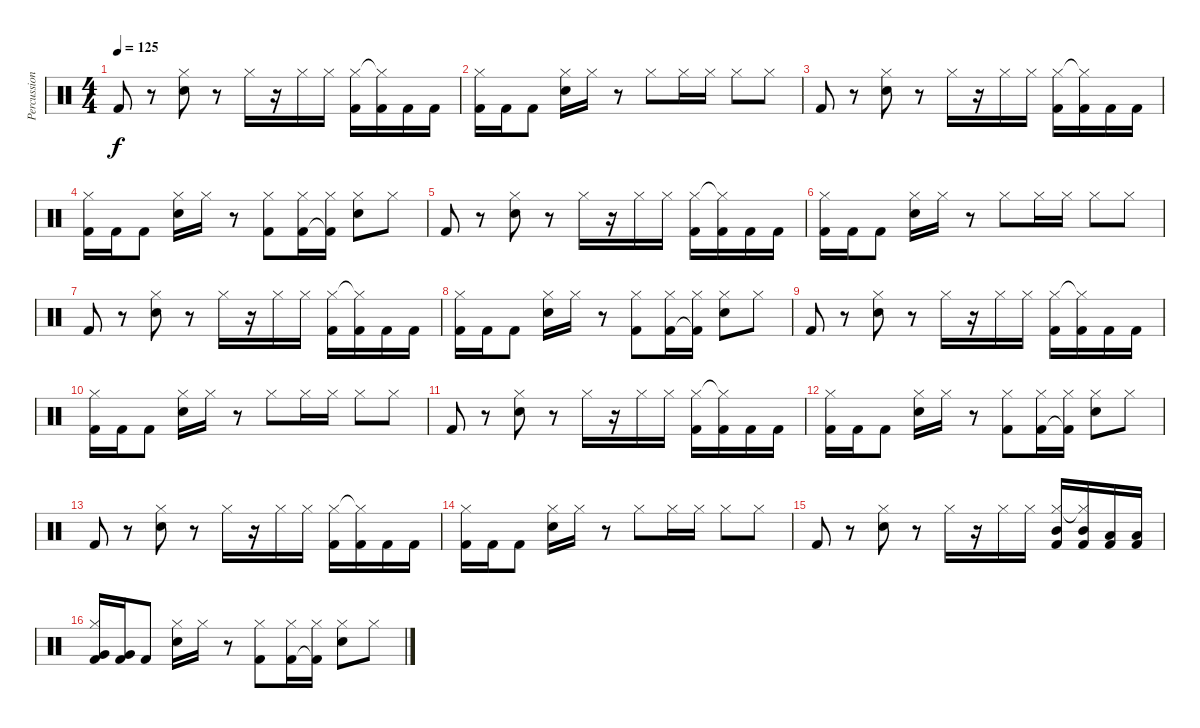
\track ("Percussion" "Percussion") {instrument percussion}
\staff {score}
\articulation defaults
\ts (4 4)
\tempo 125
\clef neutral
\ks c "Kick (hit) 2".8{dy f}
r.8 ("Hi-Hat (closed)" "Electric Snare (hit)").8 r.8 "Hi-Hat (closed)".16 r.16 "Hi-Hat (closed)".16 "Hi-Hat (closed)".16 ("Hi-Hat (closed)" "Kick (hit) 2").16 ("Hi-Hat (closed)"{t} "Kick (hit) 2").16 "Kick (hit) 2".16 "Kick (hit) 2".16 |
("Hi-Hat (closed)" "Kick (hit) 2").16 "Kick (hit) 2".16 "Kick (hit) 2".8 ("Hi-Hat (closed)" "Electric Snare (hit)").16 "Hi-Hat (closed)".16 r.8 "Hi-Hat (closed)".8 "Hi-Hat (closed)".16 "Hi-Hat (closed)".16 "Hi-Hat (closed)".8 "Hi-Hat (closed)".8 |
"Kick (hit) 2".8 r.8 ("Hi-Hat (closed)" "Electric Snare (hit)").8 r.8 "Hi-Hat (closed)".16 r.16 "Hi-Hat (closed)".16 "Hi-Hat (closed)".16 ("Hi-Hat (closed)" "Kick (hit) 2").16 ("Hi-Hat (closed)"{t} "Kick (hit) 2").16 "Kick (hit) 2".16 "Kick (hit) 2".16 |
("Hi-Hat (closed)" "Kick (hit) 2").16 "Kick (hit) 2".16 "Kick (hit) 2".8 ("Hi-Hat (closed)" "Electric Snare (hit)").16 "Hi-Hat (closed)".16 r.8 ("Hi-Hat (closed)" "Kick (hit) 2").8 ("Hi-Hat (closed)" "Kick (hit) 2").16 ("Hi-Hat (closed)" "Kick (hit) 2"{t}).16 ("Hi-Hat (closed)" "Electric Snare (hit)").8 "Hi-Hat (closed)".8 |
"Kick (hit) 2".8 r.8 ("Hi-Hat (closed)" "Electric Snare (hit)").8 r.8 "Hi-Hat (closed)".16 r.16 "Hi-Hat (closed)".16 "Hi-Hat (closed)".16 ("Hi-Hat (closed)" "Kick (hit) 2").16 ("Hi-Hat (closed)"{t} "Kick (hit) 2").16 "Kick (hit) 2".16 "Kick (hit) 2".16 |
("Hi-Hat (closed)" "Kick (hit) 2").16 "Kick (hit) 2".16 "Kick (hit) 2".8 ("Hi-Hat (closed)" "Electric Snare (hit)").16 "Hi-Hat (closed)".16 r.8 "Hi-Hat (closed)".8 "Hi-Hat (closed)".16 "Hi-Hat (closed)".16 "Hi-Hat (closed)".8 "Hi-Hat (closed)".8 |
"Kick (hit) 2".8 r.8 ("Hi-Hat (closed)" "Electric Snare (hit)").8 r.8 "Hi-Hat (closed)".16 r.16 "Hi-Hat (closed)".16 "Hi-Hat (closed)".16 ("Hi-Hat (closed)" "Kick (hit) 2").16 ("Hi-Hat (closed)"{t} "Kick (hit) 2").16 "Kick (hit) 2".16 "Kick (hit) 2".16 |
("Hi-Hat (closed)" "Kick (hit) 2").16 "Kick (hit) 2".16 "Kick (hit) 2".8 ("Hi-Hat (closed)" "Electric Snare (hit)").16 "Hi-Hat (closed)".16 r.8 ("Hi-Hat (closed)" "Kick (hit) 2").8 ("Hi-Hat (closed)" "Kick (hit) 2").16 ("Hi-Hat (closed)" "Kick (hit) 2"{t}).16 ("Hi-Hat (closed)" "Electric Snare (hit)").8 "Hi-Hat (closed)".8 |
"Kick (hit) 2".8 r.8 ("Hi-Hat (closed)" "Electric Snare (hit)").8 r.8 "Hi-Hat (closed)".16 r.16 "Hi-Hat (closed)".16 "Hi-Hat (closed)".16 ("Hi-Hat (closed)" "Kick (hit) 2").16 ("Hi-Hat (closed)"{t} "Kick (hit) 2").16 "Kick (hit) 2".16 "Kick (hit) 2".16 |
("Hi-Hat (closed)" "Kick (hit) 2").16 "Kick (hit) 2".16 "Kick (hit) 2".8 ("Hi-Hat (closed)" "Electric Snare (hit)").16 "Hi-Hat (closed)".16 r.8 "Hi-Hat (closed)".8 "Hi-Hat (closed)".16 "Hi-Hat (closed)".16 "Hi-Hat (closed)".8 "Hi-Hat (closed)".8 |
"Kick (hit) 2".8 r.8 ("Hi-Hat (closed)" "Electric Snare (hit)").8 r.8 "Hi-Hat (closed)".16 r.16 "Hi-Hat (closed)".16 "Hi-Hat (closed)".16 ("Hi-Hat (closed)" "Kick (hit) 2").16 ("Hi-Hat (closed)"{t} "Kick (hit) 2").16 "Kick (hit) 2".16 "Kick (hit) 2".16 |
("Hi-Hat (closed)" "Kick (hit) 2").16 "Kick (hit) 2".16 "Kick (hit) 2".8 ("Hi-Hat (closed)" "Electric Snare (hit)").16 "Hi-Hat (closed)".16 r.8 ("Hi-Hat (closed)" "Kick (hit) 2").8 ("Hi-Hat (closed)" "Kick (hit) 2").16 ("Hi-Hat (closed)" "Kick (hit) 2"{t}).16 ("Hi-Hat (closed)" "Electric Snare (hit)").8 "Hi-Hat (closed)".8 |
"Kick (hit) 2".8 r.8 ("Hi-Hat (closed)" "Electric Snare (hit)").8 r.8 "Hi-Hat (closed)".16 r.16 "Hi-Hat (closed)".16 "Hi-Hat (closed)".16 ("Hi-Hat (closed)" "Kick (hit) 2").16 ("Hi-Hat (closed)"{t} "Kick (hit) 2").16 "Kick (hit) 2".16 "Kick (hit) 2".16 |
("Hi-Hat (closed)" "Kick (hit) 2").16 "Kick (hit) 2".16 "Kick (hit) 2".8 ("Hi-Hat (closed)" "Electric Snare (hit)").16 "Hi-Hat (closed)".16 r.8 "Hi-Hat (closed)".8 "Hi-Hat (closed)".16 "Hi-Hat (closed)".16 "Hi-Hat (closed)".8 "Hi-Hat (closed)".8 |
"Kick (hit) 2".8 r.8 ("Hi-Hat (closed)" "Electric Snare (hit)").8 r.8 "Hi-Hat (closed)".16 r.16 "Hi-Hat (closed)".16 "Hi-Hat (closed)".16 ("Hi-Hat (closed)" "Mid Tom (hit)" "Kick (hit) 2").16 ("Hi-Hat (closed)"{t} "Mid Tom (hit)" "Kick (hit) 2").16 ("Low Tom (hit)" "Kick (hit) 2").16 ("Low Tom (hit)" "Kick (hit) 2").16 |
("Hi-Hat (closed)" "Very Low Tom (hit)" "Kick (hit) 2").16 ("Very Low Tom (hit)" "Kick (hit) 2").16 "Kick (hit) 2".8 ("Hi-Hat (closed)" "Electric Snare (hit)").16 "Hi-Hat (closed)".16 r.8 ("Hi-Hat (closed)" "Kick (hit) 2").8 ("Hi-Hat (closed)" "Kick (hit) 2").16 ("Hi-Hat (closed)" "Kick (hit) 2"{t}).16 ("Hi-Hat (closed)" "Electric Snare (hit)").8 "Hi-Hat (closed)".8
